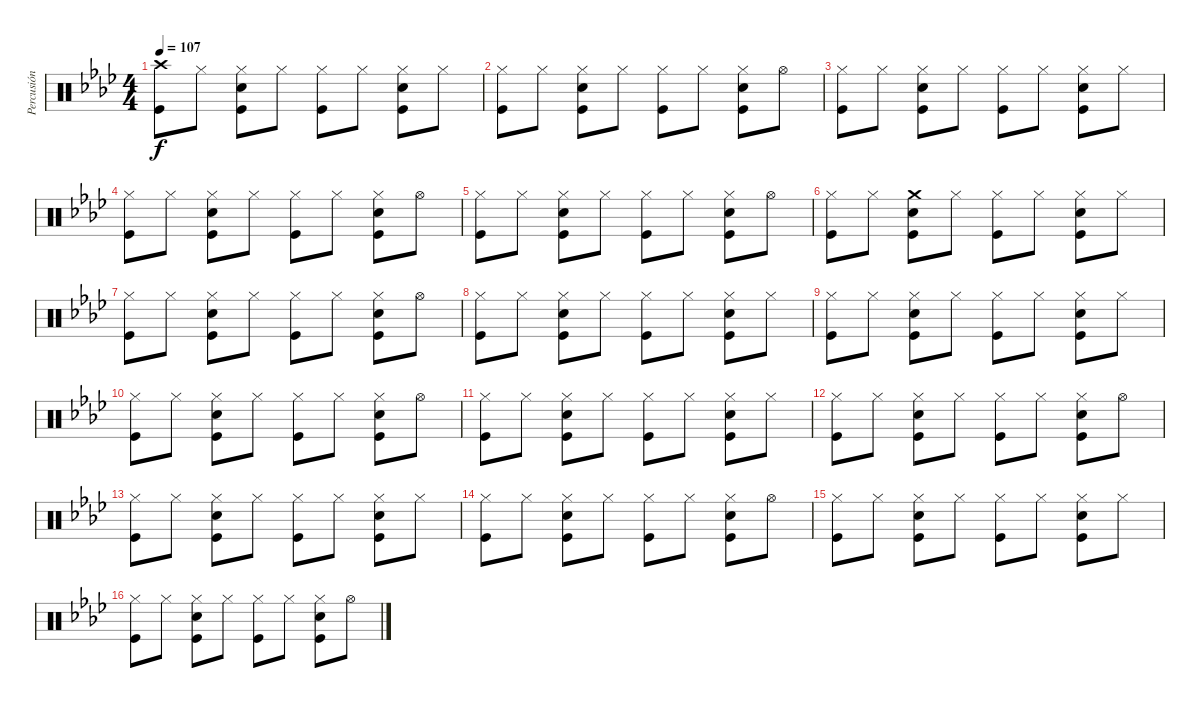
\track ("Percusión" "Percusión") {instrument percussion}
\staff {score}
\articulation defaults
\ts (4 4)
\tempo 107
\clef neutral
\ks ab
("Crash high (hit)" "Kick (hit)").8{dy f} "Hi-Hat (closed)".8 ("Hi-Hat (closed)" "Snare (hit) 2" "Kick (hit)").8 "Hi-Hat (closed)".8 ("Hi-Hat (closed)" "Kick (hit)").8 "Hi-Hat (closed)".8 ("Hi-Hat (closed)" "Snare (hit) 2" "Kick (hit)").8 "Hi-Hat (closed)".8 |
("Hi-Hat (closed)" "Kick (hit)").8 "Hi-Hat (closed)".8 ("Hi-Hat (closed)" "Snare (hit) 2" "Kick (hit)").8 "Hi-Hat (closed)".8 ("Hi-Hat (closed)" "Kick (hit)").8 "Hi-Hat (closed)".8 ("Hi-Hat (closed)" "Snare (hit) 2" "Kick (hit)").8 "Hi-Hat (open)".8 |
("Hi-Hat (closed)" "Kick (hit)").8 "Hi-Hat (closed)".8 ("Hi-Hat (closed)" "Snare (hit) 2" "Kick (hit)").8 "Hi-Hat (closed)".8 ("Hi-Hat (closed)" "Kick (hit)").8 "Hi-Hat (closed)".8 ("Hi-Hat (closed)" "Snare (hit) 2" "Kick (hit)").8 "Hi-Hat (closed)".8 |
("Hi-Hat (closed)" "Kick (hit)").8 "Hi-Hat (closed)".8 ("Hi-Hat (closed)" "Snare (hit) 2" "Kick (hit)").8 "Hi-Hat (closed)".8 ("Hi-Hat (closed)" "Kick (hit)").8 "Hi-Hat (closed)".8 ("Hi-Hat (closed)" "Snare (hit) 2" "Kick (hit)").8 "Hi-Hat (open)".8 |
("Hi-Hat (closed)" "Kick (hit)").8 "Hi-Hat (closed)".8 ("Hi-Hat (closed)" "Snare (hit) 2" "Kick (hit)").8 "Hi-Hat (closed)".8 ("Hi-Hat (closed)" "Kick (hit)").8 "Hi-Hat (closed)".8 ("Hi-Hat (closed)" "Snare (hit) 2" "Kick (hit)").8 "Hi-Hat (open)".8 |
("Hi-Hat (closed)" "Kick (hit)").8 "Hi-Hat (closed)".8 ("Crash medium (hit)" "Snare (hit) 2" "Kick (hit)").8 "Hi-Hat (closed)".8 ("Hi-Hat (closed)" "Kick (hit)").8 "Hi-Hat (closed)".8 ("Hi-Hat (closed)" "Snare (hit) 2" "Kick (hit)").8 "Hi-Hat (closed)".8 |
("Hi-Hat (closed)" "Kick (hit)").8 "Hi-Hat (closed)".8 ("Hi-Hat (closed)" "Snare (hit) 2" "Kick (hit)").8 "Hi-Hat (closed)".8 ("Hi-Hat (closed)" "Kick (hit)").8 "Hi-Hat (closed)".8 ("Hi-Hat (closed)" "Snare (hit) 2" "Kick (hit)").8 "Hi-Hat (open)".8 |
("Hi-Hat (closed)" "Kick (hit)").8 "Hi-Hat (closed)".8 ("Hi-Hat (closed)" "Snare (hit) 2" "Kick (hit)").8 "Hi-Hat (closed)".8 ("Hi-Hat (closed)" "Kick (hit)").8 "Hi-Hat (closed)".8 ("Hi-Hat (closed)" "Snare (hit) 2" "Kick (hit)").8 "Hi-Hat (closed)".8 |
("Hi-Hat (closed)" "Kick (hit)").8 "Hi-Hat (closed)".8 ("Hi-Hat (closed)" "Snare (hit) 2" "Kick (hit)").8 "Hi-Hat (closed)".8 ("Hi-Hat (closed)" "Kick (hit)").8 "Hi-Hat (closed)".8 ("Hi-Hat (closed)" "Snare (hit) 2" "Kick (hit)").8 "Hi-Hat (closed)".8 |
("Hi-Hat (closed)" "Kick (hit)").8 "Hi-Hat (closed)".8 ("Hi-Hat (closed)" "Snare (hit) 2" "Kick (hit)").8 "Hi-Hat (closed)".8 ("Hi-Hat (closed)" "Kick (hit)").8 "Hi-Hat (closed)".8 ("Hi-Hat (closed)" "Snare (hit) 2" "Kick (hit)").8 "Hi-Hat (open)".8 |
("Hi-Hat (closed)" "Kick (hit)").8 "Hi-Hat (closed)".8 ("Hi-Hat (closed)" "Snare (hit) 2" "Kick (hit)").8 "Hi-Hat (closed)".8 ("Hi-Hat (closed)" "Kick (hit)").8 "Hi-Hat (closed)".8 ("Hi-Hat (closed)" "Snare (hit) 2" "Kick (hit)").8 "Hi-Hat (closed)".8 |
("Hi-Hat (closed)" "Kick (hit)").8 "Hi-Hat (closed)".8 ("Hi-Hat (closed)" "Snare (hit) 2" "Kick (hit)").8 "Hi-Hat (closed)".8 ("Hi-Hat (closed)" "Kick (hit)").8 "Hi-Hat (closed)".8 ("Hi-Hat (closed)" "Snare (hit) 2" "Kick (hit)").8 "Hi-Hat (open)".8 |
("Hi-Hat (closed)" "Kick (hit)").8 "Hi-Hat (closed)".8 ("Hi-Hat (closed)" "Snare (hit) 2" "Kick (hit)").8 "Hi-Hat (closed)".8 ("Hi-Hat (closed)" "Kick (hit)").8 "Hi-Hat (closed)".8 ("Hi-Hat (closed)" "Snare (hit) 2" "Kick (hit)").8 "Hi-Hat (closed)".8 |
("Hi-Hat (closed)" "Kick (hit)").8 "Hi-Hat (closed)".8 ("Hi-Hat (closed)" "Snare (hit) 2" "Kick (hit)").8 "Hi-Hat (closed)".8 ("Hi-Hat (closed)" "Kick (hit)").8 "Hi-Hat (closed)".8 ("Hi-Hat (closed)" "Snare (hit) 2" "Kick (hit)").8 "Hi-Hat (open)".8 |
("Hi-Hat (closed)" "Kick (hit)").8 "Hi-Hat (closed)".8 ("Hi-Hat (closed)" "Snare (hit) 2" "Kick (hit)").8 "Hi-Hat (closed)".8 ("Hi-Hat (closed)" "Kick (hit)").8 "Hi-Hat (closed)".8 ("Hi-Hat (closed)" "Snare (hit) 2" "Kick (hit)").8 "Hi-Hat (closed)".8 |
("Hi-Hat (closed)" "Kick (hit)").8 "Hi-Hat (closed)".8 ("Hi-Hat (closed)" "Snare (hit) 2" "Kick (hit)").8 "Hi-Hat (closed)".8 ("Hi-Hat (closed)" "Kick (hit)").8 "Hi-Hat (closed)".8 ("Hi-Hat (closed)" "Snare (hit) 2" "Kick (hit)").8 "Hi-Hat (open)".8
